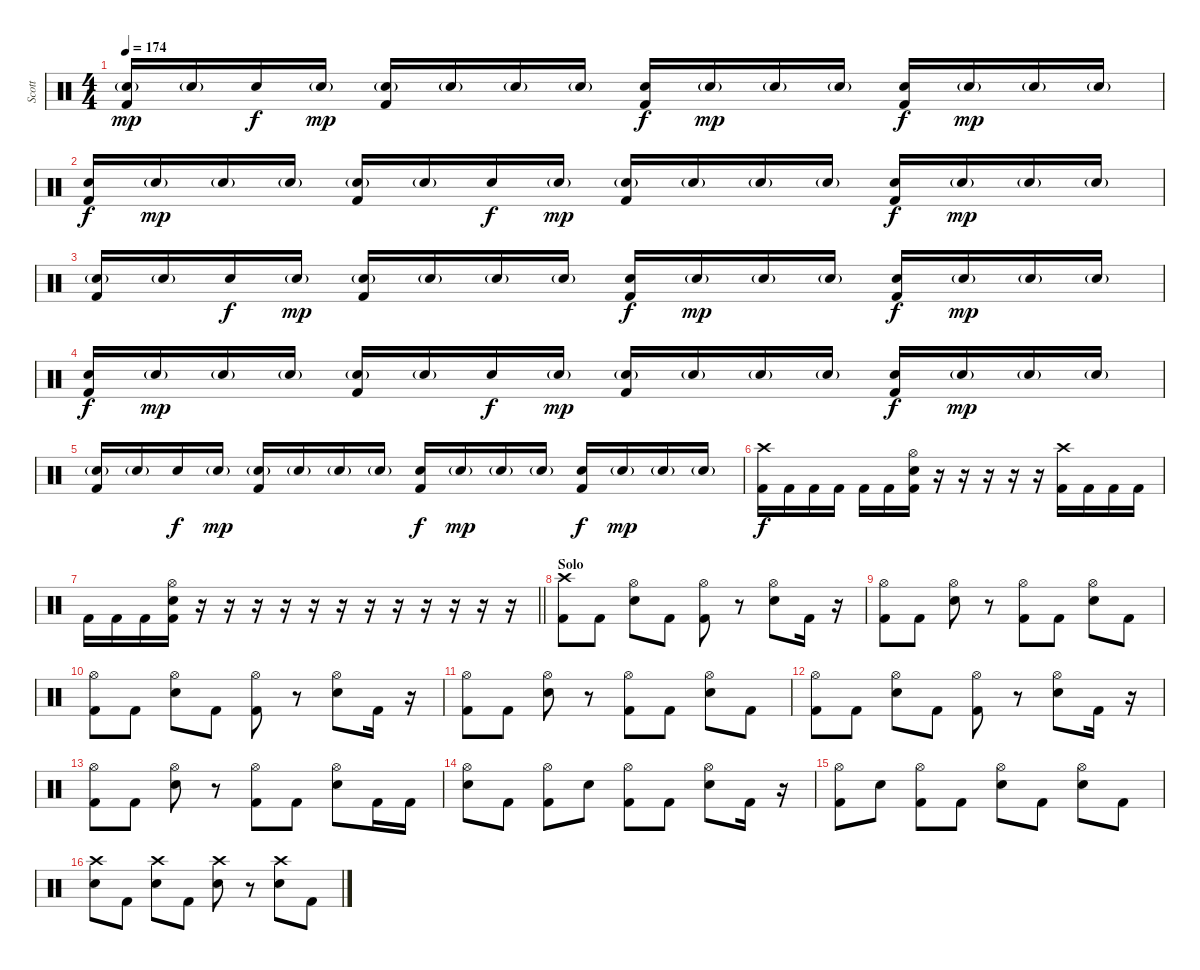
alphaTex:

\track ("Scott" "Scott") {instrument percussion}
\staff {score}
\articulation defaults
\ts (4 4)
\tempo 174
\clef neutral
\ks c
("Electric Snare (hit)"{g} "Kick (hit) 2").16{dy mp} "Electric Snare (hit)"{g}.16 "Electric Snare (hit)".16{dy f} "Electric Snare (hit)"{g}.16{dy mp} ("Electric Snare (hit)"{g} "Kick (hit) 2").16 "Electric Snare (hit)"{g}.16 "Electric Snare (hit)"{g}.16 "Electric Snare (hit)"{g}.16 ("Electric Snare (hit)" "Kick (hit) 2").16{dy f} "Electric Snare (hit)"{g}.16{dy mp} "Electric Snare (hit)"{g}.16 "Electric Snare (hit)"{g}.16 ("Electric Snare (hit)" "Kick (hit) 2").16{dy f} "Electric Snare (hit)"{g}.16{dy mp} "Electric Snare (hit)"{g}.16 "Electric Snare (hit)"{g}.16 |
("Electric Snare (hit)" "Kick (hit) 2").16{dy f} "Electric Snare (hit)"{g}.16{dy mp} "Electric Snare (hit)"{g}.16 "Electric Snare (hit)"{g}.16 ("Electric Snare (hit)"{g} "Kick (hit) 2").16 "Electric Snare (hit)"{g}.16 "Electric Snare (hit)".16{dy f} "Electric Snare (hit)"{g}.16{dy mp} ("Electric Snare (hit)"{g} "Kick (hit) 2").16 "Electric Snare (hit)"{g}.16 "Electric Snare (hit)"{g}.16 "Electric Snare (hit)"{g}.16 ("Electric Snare (hit)" "Kick (hit) 2").16{dy f} "Electric Snare (hit)"{g}.16{dy mp} "Electric Snare (hit)"{g}.16 "Electric Snare (hit)"{g}.16 |
("Electric Snare (hit)"{g} "Kick (hit) 2").16 "Electric Snare (hit)"{g}.16 "Electric Snare (hit)".16{dy f} "Electric Snare (hit)"{g}.16{dy mp} ("Electric Snare (hit)"{g} "Kick (hit) 2").16 "Electric Snare (hit)"{g}.16 "Electric Snare (hit)"{g}.16 "Electric Snare (hit)"{g}.16 ("Electric Snare (hit)" "Kick (hit) 2").16{dy f} "Electric Snare (hit)"{g}.16{dy mp} "Electric Snare (hit)"{g}.16 "Electric Snare (hit)"{g}.16 ("Electric Snare (hit)" "Kick (hit) 2").16{dy f} "Electric Snare (hit)"{g}.16{dy mp} "Electric Snare (hit)"{g}.16 "Electric Snare (hit)"{g}.16 |
("Electric Snare (hit)" "Kick (hit) 2").16{dy f} "Electric Snare (hit)"{g}.16{dy mp} "Electric Snare (hit)"{g}.16 "Electric Snare (hit)"{g}.16 ("Electric Snare (hit)"{g} "Kick (hit) 2").16 "Electric Snare (hit)"{g}.16 "Electric Snare (hit)".16{dy f} "Electric Snare (hit)"{g}.16{dy mp} ("Electric Snare (hit)"{g} "Kick (hit) 2").16 "Electric Snare (hit)"{g}.16 "Electric Snare (hit)"{g}.16 "Electric Snare (hit)"{g}.16 ("Electric Snare (hit)" "Kick (hit) 2").16{dy f} "Electric Snare (hit)"{g}.16{dy mp} "Electric Snare (hit)"{g}.16 "Electric Snare (hit)"{g}.16 |
("Electric Snare (hit)"{g} "Kick (hit) 2").16 "Electric Snare (hit)"{g}.16 "Electric Snare (hit)".16{dy f} "Electric Snare (hit)"{g}.16{dy mp} ("Electric Snare (hit)"{g} "Kick (hit) 2").16 "Electric Snare (hit)"{g}.16 "Electric Snare (hit)"{g}.16 "Electric Snare (hit)"{g}.16 ("Electric Snare (hit)" "Kick (hit) 2").16{dy f} "Electric Snare (hit)"{g}.16{dy mp} "Electric Snare (hit)"{g}.16 "Electric Snare (hit)"{g}.16 ("Electric Snare (hit)" "Kick (hit) 2").16{dy f} "Electric Snare (hit)"{g}.16{dy mp} "Electric Snare (hit)"{g}.16 "Electric Snare (hit)"{g}.16 |
("Crash high (hit)" "Kick (hit) 2").16{dy f} "Kick (hit) 2".16 "Kick (hit) 2".16 "Kick (hit) 2".16 "Kick (hit) 2".16 "Kick (hit) 2".16 ("Hi-Hat (open)" "Electric Snare (hit)" "Kick (hit) 2").16 r.16 r.16 r.16 r.16 r.16 ("Crash high (hit)" "Kick (hit) 2").16 "Kick (hit) 2".16 "Kick (hit) 2".16 "Kick (hit) 2".16 |
\barLineRight lightlight "Kick (hit) 2".16 "Kick (hit) 2".16 "Kick (hit) 2".16
("Hi-Hat (open)" "Electric Snare (hit)" "Kick (hit) 2").16 r.16 r.16 r.16 r.16 r.16 r.16 r.16 r.16 r.16 r.16 r.16 r.16 |
\section ("" "Solo")
("Crash high (hit)" "Kick (hit) 2").8 "Kick (hit) 2".8 ("Hi-Hat (open)" "Electric Snare (hit)").8 "Kick (hit) 2".8 ("Hi-Hat (open)" "Kick (hit) 2").8 r.8 ("Hi-Hat (open)" "Electric Snare (hit)").8 "Kick (hit) 2".16 r.16 |
("Hi-Hat (open)" "Kick (hit) 2").8 "Kick (hit) 2".8 ("Hi-Hat (open)" "Electric Snare (hit)").8 r.8 ("Hi-Hat (open)" "Kick (hit) 2").8 "Kick (hit) 2".8 ("Hi-Hat (open)" "Electric Snare (hit)").8 "Kick (hit) 2".8 |
("Hi-Hat (open)" "Kick (hit) 2").8 "Kick (hit) 2".8 ("Hi-Hat (open)" "Electric Snare (hit)").8 "Kick (hit) 2".8 ("Hi-Hat (open)" "Kick (hit) 2").8 r.8 ("Hi-Hat (open)" "Electric Snare (hit)").8 "Kick (hit) 2".16 r.16 |
("Hi-Hat (open)" "Kick (hit) 2").8 "Kick (hit) 2".8 ("Hi-Hat (open)" "Electric Snare (hit)").8 r.8 ("Hi-Hat (open)" "Kick (hit) 2").8 "Kick (hit) 2".8 ("Hi-Hat (open)" "Electric Snare (hit)").8 "Kick (hit) 2".8 |
("Hi-Hat (open)" "Kick (hit) 2").8 "Kick (hit) 2".8 ("Hi-Hat (open)" "Electric Snare (hit)").8 "Kick (hit) 2".8 ("Hi-Hat (open)" "Kick (hit) 2").8 r.8 ("Hi-Hat (open)" "Electric Snare (hit)").8 "Kick (hit) 2".16 r.16 |
("Hi-Hat (open)" "Kick (hit) 2").8 "Kick (hit) 2".8 ("Hi-Hat (open)" "Electric Snare (hit)").8 r.8 ("Hi-Hat (open)" "Kick (hit) 2").8 "Kick (hit) 2".8 ("Hi-Hat (open)" "Electric Snare (hit)").8 "Kick (hit) 2".16 "Kick (hit) 2".16 |
("Hi-Hat (open)" "Electric Snare (hit)").8 "Kick (hit) 2".8 ("Hi-Hat (open)" "Kick (hit) 2").8 "Electric Snare (hit)".8 ("Hi-Hat (open)" "Kick (hit) 2").8 "Kick (hit) 2".8 ("Hi-Hat (open)" "Electric Snare (hit)").8 "Kick (hit) 2".16 r.16 |
("Hi-Hat (open)" "Kick (hit) 2").8 "Electric Snare (hit)".8 ("Hi-Hat (open)" "Kick (hit) 2").8 "Kick (hit) 2".8 ("Hi-Hat (open)" "Electric Snare (hit)").8 "Kick (hit) 2".8 ("Hi-Hat (open)" "Electric Snare (hit)").8 "Kick (hit) 2".8 |
("Crash high (hit)" "Electric Snare (hit)").8 "Kick (hit) 2".8 ("Crash high (hit)" "Electric Snare (hit)").8 "Kick (hit) 2".8 ("Crash high (hit)" "Electric Snare (hit)").8 r.8 ("Crash high (hit)" "Electric Snare (hit)").8 "Kick (hit) 2".8
